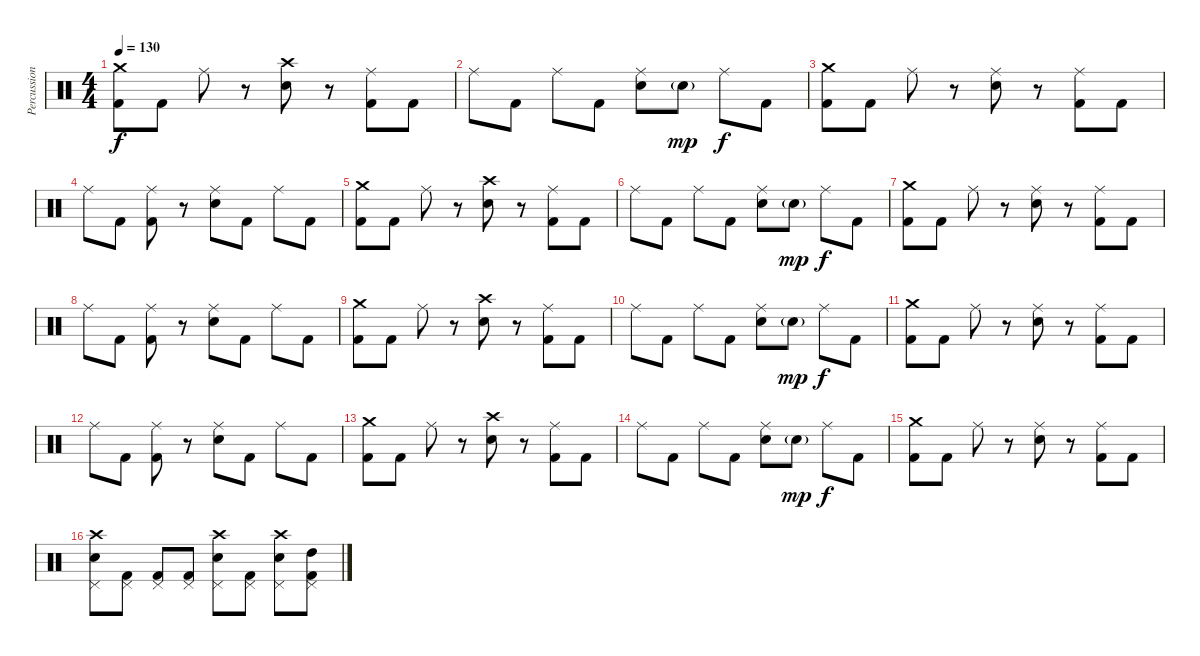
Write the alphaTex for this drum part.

\track ("Percussion" "Percussion") {instrument percussion}
\staff {score}
\articulation defaults
\ts (4 4)
\tempo 130
\clef neutral
\ks c
("Crash medium (hit)" "Kick (hit) 2").8{dy f} "Kick (hit) 2".8 "Ride (middle)".8 r.8 ("Crash high (hit)" "Snare (hit) 2").8 r.8 ("Ride (middle)" "Kick (hit) 2").8 "Kick (hit) 2".8 |
"Ride (middle)".8 "Kick (hit) 2".8 "Ride (middle)".8 "Kick (hit) 2".8 ("Ride (middle)" "Snare (hit) 2").8 "Snare (hit) 2"{g}.8{dy mp} "Ride (middle)".8{dy f} "Kick (hit) 2".8 |
("Crash medium (hit)" "Kick (hit) 2").8 "Kick (hit) 2".8 "Ride (middle)".8 r.8 ("Ride (middle)" "Snare (hit) 2").8 r.8 ("Ride (middle)" "Kick (hit) 2").8 "Kick (hit) 2".8 |
"Ride (middle)".8 "Kick (hit) 2".8 ("Ride (middle)" "Kick (hit) 2").8 r.8 ("Ride (middle)" "Snare (hit) 2").8 "Kick (hit) 2".8 "Ride (middle)".8 "Kick (hit) 2".8 |
("Crash medium (hit)" "Kick (hit) 2").8 "Kick (hit) 2".8 "Ride (middle)".8 r.8 ("Crash high (hit)" "Snare (hit) 2").8 r.8 ("Ride (middle)" "Kick (hit) 2").8 "Kick (hit) 2".8 |
"Ride (middle)".8 "Kick (hit) 2".8 "Ride (middle)".8 "Kick (hit) 2".8 ("Ride (middle)" "Snare (hit) 2").8 "Snare (hit) 2"{g}.8{dy mp} "Ride (middle)".8{dy f} "Kick (hit) 2".8 |
("Crash medium (hit)" "Kick (hit) 2").8 "Kick (hit) 2".8 "Ride (middle)".8 r.8 ("Ride (middle)" "Snare (hit) 2").8 r.8 ("Ride (middle)" "Kick (hit) 2").8 "Kick (hit) 2".8 |
"Ride (middle)".8 "Kick (hit) 2".8 ("Ride (middle)" "Kick (hit) 2").8 r.8 ("Ride (middle)" "Snare (hit) 2").8 "Kick (hit) 2".8 "Ride (middle)".8 "Kick (hit) 2".8 |
("Crash medium (hit)" "Kick (hit) 2").8 "Kick (hit) 2".8 "Ride (middle)".8 r.8 ("Crash high (hit)" "Snare (hit) 2").8 r.8 ("Ride (middle)" "Kick (hit) 2").8 "Kick (hit) 2".8 |
"Ride (middle)".8 "Kick (hit) 2".8 "Ride (middle)".8 "Kick (hit) 2".8 ("Ride (middle)" "Snare (hit) 2").8 "Snare (hit) 2"{g}.8{dy mp} "Ride (middle)".8{dy f} "Kick (hit) 2".8 |
("Crash medium (hit)" "Kick (hit) 2").8 "Kick (hit) 2".8 "Ride (middle)".8 r.8 ("Ride (middle)" "Snare (hit) 2").8 r.8 ("Ride (middle)" "Kick (hit) 2").8 "Kick (hit) 2".8 |
"Ride (middle)".8 "Kick (hit) 2".8 ("Ride (middle)" "Kick (hit) 2").8 r.8 ("Ride (middle)" "Snare (hit) 2").8 "Kick (hit) 2".8 "Ride (middle)".8 "Kick (hit) 2".8 |
("Crash medium (hit)" "Kick (hit) 2").8 "Kick (hit) 2".8 "Ride (middle)".8 r.8 ("Crash high (hit)" "Snare (hit) 2").8 r.8 ("Ride (middle)" "Kick (hit) 2").8 "Kick (hit) 2".8 |
"Ride (middle)".8 "Kick (hit) 2".8 "Ride (middle)".8 "Kick (hit) 2".8 ("Ride (middle)" "Snare (hit) 2").8 "Snare (hit) 2"{g}.8{dy mp} "Ride (middle)".8{dy f} "Kick (hit) 2".8 |
("Crash medium (hit)" "Kick (hit) 2").8 "Kick (hit) 2".8 "Ride (middle)".8 r.8 ("Ride (middle)" "Snare (hit) 2").8 r.8 ("Ride (middle)" "Kick (hit) 2").8 "Kick (hit) 2".8 |
("Crash high (hit)" "Pedal Hi-Hat (hit)" "Snare (hit) 2").8 ("Pedal Hi-Hat (hit)" "Kick (hit) 2").8 ("Pedal Hi-Hat (hit)" "Kick (hit) 2").8 ("Pedal Hi-Hat (hit)" "Kick (hit) 2").8 ("Crash high (hit)" "Pedal Hi-Hat (hit)" "Snare (hit) 2").8 ("Pedal Hi-Hat (hit)" "Kick (hit) 2").8 ("Crash high (hit)" "Pedal Hi-Hat (hit)" "Snare (hit) 2").8 ("Pedal Hi-Hat (hit)" "High Tom (hit)" "Kick (hit) 2").8
